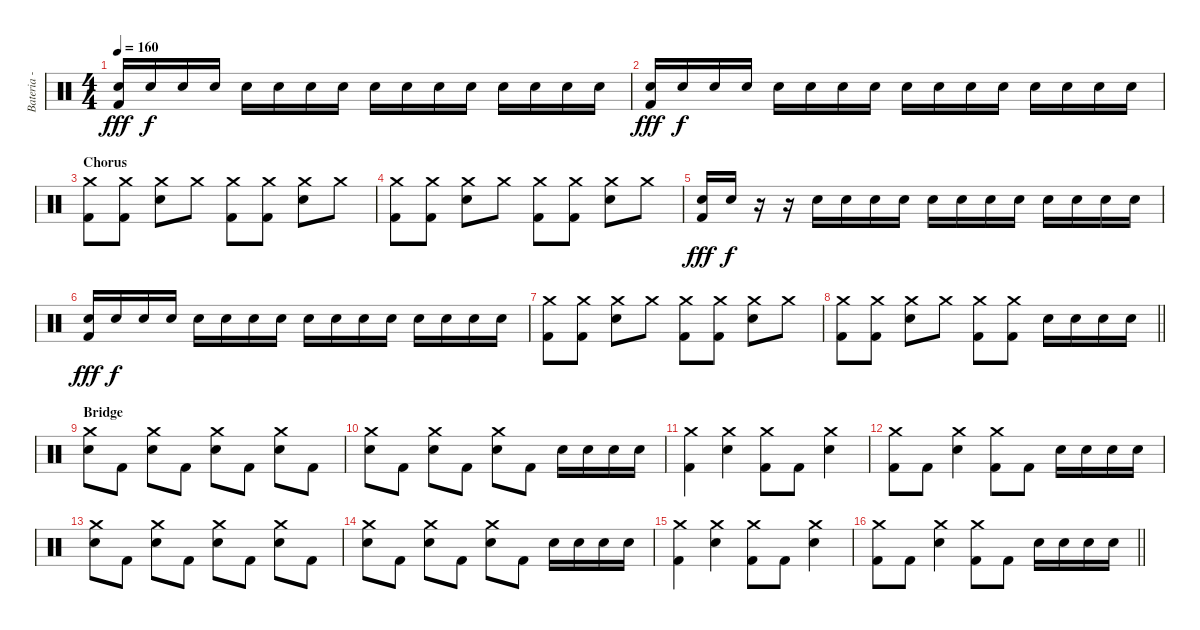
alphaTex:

\track ("Bateria - Larzon" "Bateria - ") {instrument percussion}
\staff {score}
\articulation defaults
\ts (4 4)
\tempo 160
\clef neutral
\ks c
("Snare (hit) 2" "Kick (hit) 2").16{dy fff} "Snare (hit) 2".16{dy f} "Snare (hit) 2".16 "Snare (hit) 2".16 "Snare (hit) 2".16 "Snare (hit) 2".16 "Snare (hit) 2".16 "Snare (hit) 2".16 "Snare (hit) 2".16 "Snare (hit) 2".16 "Snare (hit) 2".16 "Snare (hit) 2".16 "Snare (hit) 2".16 "Snare (hit) 2".16 "Snare (hit) 2".16 "Snare (hit) 2".16 |
("Snare (hit) 2" "Kick (hit) 2").16{dy fff} "Snare (hit) 2".16{dy f} "Snare (hit) 2".16 "Snare (hit) 2".16 "Snare (hit) 2".16 "Snare (hit) 2".16 "Snare (hit) 2".16 "Snare (hit) 2".16 "Snare (hit) 2".16 "Snare (hit) 2".16 "Snare (hit) 2".16 "Snare (hit) 2".16 "Snare (hit) 2".16 "Snare (hit) 2".16 "Snare (hit) 2".16 "Snare (hit) 2".16 |
\section ("" "Chorus")
("Kick (hit) 2" "Crash medium (hit)").8 ("Kick (hit) 2" "Crash medium (hit)").8 ("Snare (hit) 2" "Crash medium (hit)").8 "Crash medium (hit)".8 ("Kick (hit) 2" "Crash medium (hit)").8 ("Kick (hit) 2" "Crash medium (hit)").8 ("Snare (hit) 2" "Crash medium (hit)").8 "Crash medium (hit)".8 |
("Kick (hit) 2" "Crash medium (hit)").8 ("Kick (hit) 2" "Crash medium (hit)").8 ("Snare (hit) 2" "Crash medium (hit)").8 "Crash medium (hit)".8 ("Kick (hit) 2" "Crash medium (hit)").8 ("Kick (hit) 2" "Crash medium (hit)").8 ("Snare (hit) 2" "Crash medium (hit)").8 "Crash medium (hit)".8 |
("Snare (hit) 2" "Kick (hit) 2").16{dy fff} "Snare (hit) 2".16{dy f} r.16 r.16 "Snare (hit) 2".16 "Snare (hit) 2".16 "Snare (hit) 2".16 "Snare (hit) 2".16 "Snare (hit) 2".16 "Snare (hit) 2".16 "Snare (hit) 2".16 "Snare (hit) 2".16 "Snare (hit) 2".16 "Snare (hit) 2".16 "Snare (hit) 2".16 "Snare (hit) 2".16 |
("Snare (hit) 2" "Kick (hit) 2").16{dy fff} "Snare (hit) 2".16{dy f} "Snare (hit) 2".16 "Snare (hit) 2".16 "Snare (hit) 2".16 "Snare (hit) 2".16 "Snare (hit) 2".16 "Snare (hit) 2".16 "Snare (hit) 2".16 "Snare (hit) 2".16 "Snare (hit) 2".16 "Snare (hit) 2".16 "Snare (hit) 2".16 "Snare (hit) 2".16 "Snare (hit) 2".16 "Snare (hit) 2".16 |
("Kick (hit) 2" "Crash medium (hit)").8 ("Kick (hit) 2" "Crash medium (hit)").8 ("Snare (hit) 2" "Crash medium (hit)").8 "Crash medium (hit)".8 ("Kick (hit) 2" "Crash medium (hit)").8 ("Kick (hit) 2" "Crash medium (hit)").8 ("Snare (hit) 2" "Crash medium (hit)").8 "Crash medium (hit)".8 |
\barLineRight lightlight
("Kick (hit) 2" "Crash medium (hit)").8 ("Kick (hit) 2" "Crash medium (hit)").8 ("Snare (hit) 2" "Crash medium (hit)").8 "Crash medium (hit)".8 ("Kick (hit) 2" "Crash medium (hit)").8 ("Kick (hit) 2" "Crash medium (hit)").8 "Snare (hit) 2".16 "Snare (hit) 2".16 "Snare (hit) 2".16 "Snare (hit) 2".16 |
\section ("" "Bridge")
("Snare (hit) 2" "Crash medium (hit)").8 "Kick (hit) 2".8 ("Snare (hit) 2" "Crash medium (hit)").8 "Kick (hit) 2".8 ("Snare (hit) 2" "Crash medium (hit)").8 "Kick (hit) 2".8 ("Snare (hit) 2" "Crash medium (hit)").8 "Kick (hit) 2".8 |
("Snare (hit) 2" "Crash medium (hit)").8 "Kick (hit) 2".8 ("Snare (hit) 2" "Crash medium (hit)").8 "Kick (hit) 2".8 ("Snare (hit) 2" "Crash medium (hit)").8 "Kick (hit) 2".8 "Snare (hit) 2".16 "Snare (hit) 2".16 "Snare (hit) 2".16 "Snare (hit) 2".16 |
("Kick (hit) 2" "Crash medium (hit)").4 ("Snare (hit) 2" "Crash medium (hit)").4 ("Kick (hit) 2" "Crash medium (hit)").8 "Kick (hit) 2".8 ("Snare (hit) 2" "Crash medium (hit)").4 |
("Kick (hit) 2" "Crash medium (hit)").8 "Kick (hit) 2".8 ("Snare (hit) 2" "Crash medium (hit)").4 ("Kick (hit) 2" "Crash medium (hit)").8 "Kick (hit) 2".8 "Snare (hit) 2".16 "Snare (hit) 2".16 "Snare (hit) 2".16 "Snare (hit) 2".16 |
("Snare (hit) 2" "Crash medium (hit)").8 "Kick (hit) 2".8 ("Snare (hit) 2" "Crash medium (hit)").8 "Kick (hit) 2".8 ("Snare (hit) 2" "Crash medium (hit)").8 "Kick (hit) 2".8 ("Snare (hit) 2" "Crash medium (hit)").8 "Kick (hit) 2".8 |
("Snare (hit) 2" "Crash medium (hit)").8 "Kick (hit) 2".8 ("Snare (hit) 2" "Crash medium (hit)").8 "Kick (hit) 2".8 ("Snare (hit) 2" "Crash medium (hit)").8 "Kick (hit) 2".8 "Snare (hit) 2".16 "Snare (hit) 2".16 "Snare (hit) 2".16 "Snare (hit) 2".16 |
("Kick (hit) 2" "Crash medium (hit)").4 ("Snare (hit) 2" "Crash medium (hit)").4 ("Kick (hit) 2" "Crash medium (hit)").8 "Kick (hit) 2".8 ("Snare (hit) 2" "Crash medium (hit)").4 |
\barLineRight lightlight
("Kick (hit) 2" "Crash medium (hit)").8 "Kick (hit) 2".8 ("Snare (hit) 2" "Crash medium (hit)").4 ("Kick (hit) 2" "Crash medium (hit)").8 "Kick (hit) 2".8 "Snare (hit) 2".16 "Snare (hit) 2".16 "Snare (hit) 2".16 "Snare (hit) 2".16
